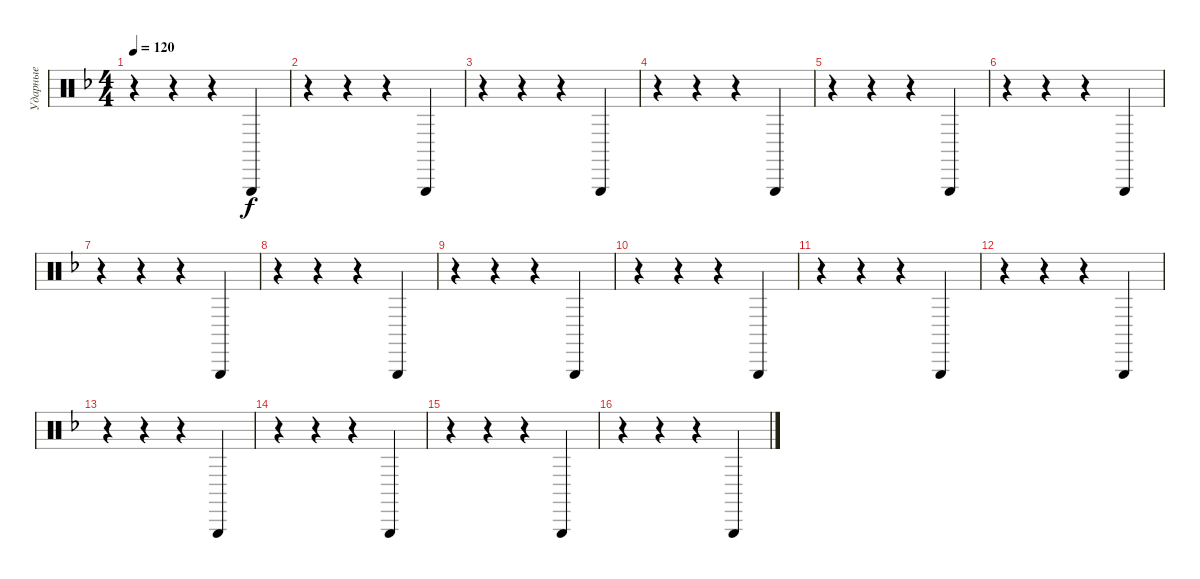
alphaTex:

\track ("Ударные" "Ударные") {instrument percussion}
\staff {score}
\articulation defaults
\ts (4 4)
\tempo 120
\clef neutral
\ks dminor
r.4{dy f} r.4 r.4 "Triangle (hit)".4 |
r.4 r.4 r.4 "Triangle (hit)".4 |
r.4 r.4 r.4 "Triangle (hit)".4 |
r.4 r.4 r.4 "Triangle (hit)".4 |
r.4 r.4 r.4 "Triangle (hit)".4 |
r.4 r.4 r.4 "Triangle (hit)".4 |
r.4 r.4 r.4 "Triangle (hit)".4 |
r.4 r.4 r.4 "Triangle (hit)".4 |
r.4 r.4 r.4 "Triangle (hit)".4 |
r.4 r.4 r.4 "Triangle (hit)".4 |
r.4 r.4 r.4 "Triangle (hit)".4 |
r.4 r.4 r.4 "Triangle (hit)".4 |
r.4 r.4 r.4 "Triangle (hit)".4 |
r.4 r.4 r.4 "Triangle (hit)".4 |
r.4 r.4 r.4 "Triangle (hit)".4 |
r.4 r.4 r.4 "Triangle (hit)".4
